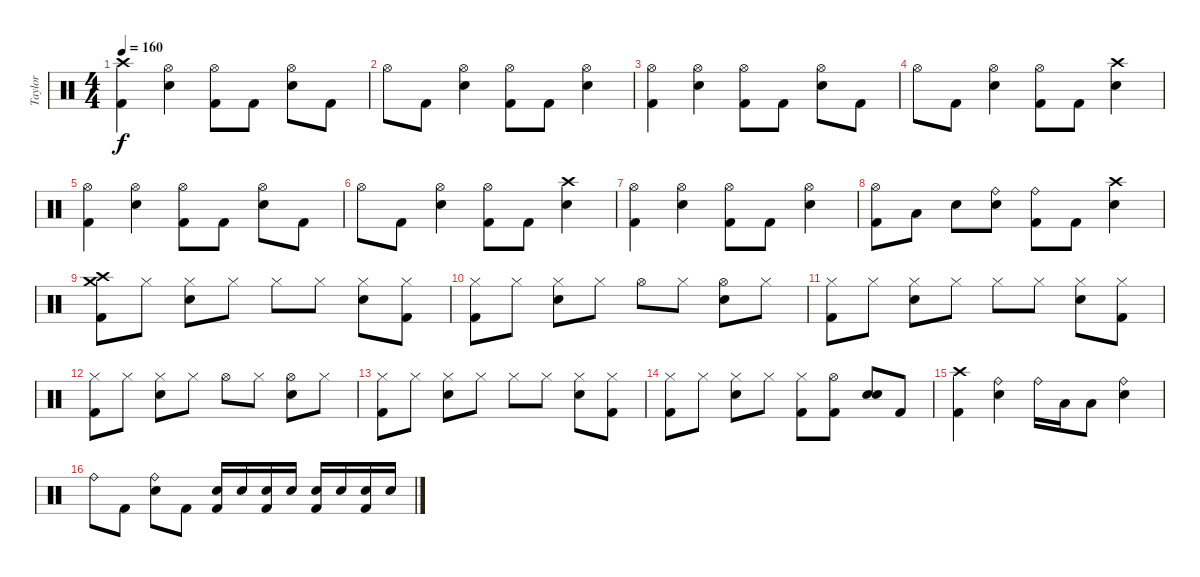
\track ("Taylor" "Taylor") {instrument percussion}
\staff {score}
\articulation defaults
\ts (4 4)
\tempo 160
\clef neutral
\ks c
("Crash high (hit)" "Kick (hit) 2").4{dy f} ("Hi-Hat (open)" "Electric Snare (hit)").4 ("Hi-Hat (open)" "Kick (hit) 2").8 "Kick (hit) 2".8 ("Hi-Hat (open)" "Electric Snare (hit)").8 "Kick (hit) 2".8 |
"Hi-Hat (open)".8 "Kick (hit) 2".8 ("Hi-Hat (open)" "Electric Snare (hit)").4 ("Hi-Hat (open)" "Kick (hit) 2").8 "Kick (hit) 2".8 ("Hi-Hat (open)" "Electric Snare (hit)").4 |
("Hi-Hat (open)" "Kick (hit) 2").4 ("Hi-Hat (open)" "Electric Snare (hit)").4 ("Hi-Hat (open)" "Kick (hit) 2").8 "Kick (hit) 2".8 ("Hi-Hat (open)" "Electric Snare (hit)").8 "Kick (hit) 2".8 |
"Hi-Hat (open)".8 "Kick (hit) 2".8 ("Hi-Hat (open)" "Electric Snare (hit)").4 ("Hi-Hat (open)" "Kick (hit) 2").8 "Kick (hit) 2".8 ("Crash high (hit)" "Electric Snare (hit)").4 |
("Hi-Hat (open)" "Kick (hit) 2").4 ("Hi-Hat (open)" "Electric Snare (hit)").4 ("Hi-Hat (open)" "Kick (hit) 2").8 "Kick (hit) 2".8 ("Hi-Hat (open)" "Electric Snare (hit)").8 "Kick (hit) 2".8 |
"Hi-Hat (open)".8 "Kick (hit) 2".8 ("Hi-Hat (open)" "Electric Snare (hit)").4 ("Hi-Hat (open)" "Kick (hit) 2").8 "Kick (hit) 2".8 ("Crash high (hit)" "Electric Snare (hit)").4 |
("Hi-Hat (open)" "Kick (hit) 2").4 ("Hi-Hat (open)" "Electric Snare (hit)").4 ("Hi-Hat (open)" "Kick (hit) 2").8 "Kick (hit) 2".8 ("Hi-Hat (open)" "Electric Snare (hit)").4 |
("Hi-Hat (open)" "Kick (hit) 2").8 "Low Tom (hit)".8 "Electric Snare (hit)".8 ("Ride (bell)" "Electric Snare (hit)").8 ("Ride (bell)" "Kick (hit) 2").8 "Kick (hit) 2".8 ("Crash high (hit)" "Electric Snare (hit)").4 |
("Crash high (hit)" "Crash medium (hit)" "Kick (hit) 2").8 "Hi-Hat (closed)".8 ("Hi-Hat (closed)" "Electric Snare (hit)").8 "Hi-Hat (closed)".8 "Hi-Hat (closed)".8 "Hi-Hat (closed)".8 ("Hi-Hat (closed)" "Electric Snare (hit)").8 ("Hi-Hat (closed)" "Kick (hit) 2").8 |
("Hi-Hat (closed)" "Kick (hit) 2").8 "Hi-Hat (closed)".8 ("Hi-Hat (closed)" "Electric Snare (hit)").8 "Hi-Hat (closed)".8 "Hi-Hat (open)".8 "Hi-Hat (closed)".8 ("Hi-Hat (open)" "Electric Snare (hit)").8 "Hi-Hat (closed)".8 |
("Hi-Hat (closed)" "Kick (hit) 2").8 "Hi-Hat (closed)".8 ("Hi-Hat (closed)" "Electric Snare (hit)").8 "Hi-Hat (closed)".8 "Hi-Hat (closed)".8 "Hi-Hat (closed)".8 ("Hi-Hat (closed)" "Electric Snare (hit)").8 ("Hi-Hat (closed)" "Kick (hit) 2").8 |
("Hi-Hat (closed)" "Kick (hit) 2").8 "Hi-Hat (closed)".8 ("Hi-Hat (closed)" "Electric Snare (hit)").8 "Hi-Hat (closed)".8 "Hi-Hat (open)".8 "Hi-Hat (closed)".8 ("Hi-Hat (open)" "Electric Snare (hit)").8 "Hi-Hat (closed)".8 |
("Hi-Hat (closed)" "Kick (hit) 2").8 "Hi-Hat (closed)".8 ("Hi-Hat (closed)" "Electric Snare (hit)").8 "Hi-Hat (closed)".8 "Hi-Hat (closed)".8 "Hi-Hat (closed)".8 ("Hi-Hat (closed)" "Electric Snare (hit)").8 ("Hi-Hat (closed)" "Kick (hit) 2").8 |
("Hi-Hat (closed)" "Kick (hit) 2").8 "Hi-Hat (closed)".8 ("Hi-Hat (closed)" "Electric Snare (hit)").8 "Hi-Hat (closed)".8 ("Hi-Hat (closed)" "Kick (hit) 2").8 ("Hi-Hat (open)" "Kick (hit) 2").8 ("Electric Snare (hit)" "Electric Snare (hit)").8 "Kick (hit) 2".8 |
("Crash high (hit)" "Kick (hit) 2").4 ("Ride (bell)" "Electric Snare (hit)").4 "Ride (bell)".16 "Low Tom (hit)".16 "Low Tom (hit)".8 ("Ride (bell)" "Electric Snare (hit)").4 |
"Ride (bell)".8 "Kick (hit) 2".8 ("Ride (bell)" "Electric Snare (hit)").8 "Kick (hit) 2".8 ("Electric Snare (hit)" "Kick (hit) 2").16 "Electric Snare (hit)".16 ("Electric Snare (hit)" "Kick (hit) 2").16 "Electric Snare (hit)".16 ("Electric Snare (hit)" "Kick (hit) 2").16 "Electric Snare (hit)".16 ("Electric Snare (hit)" "Kick (hit) 2").16 "Electric Snare (hit)".16
